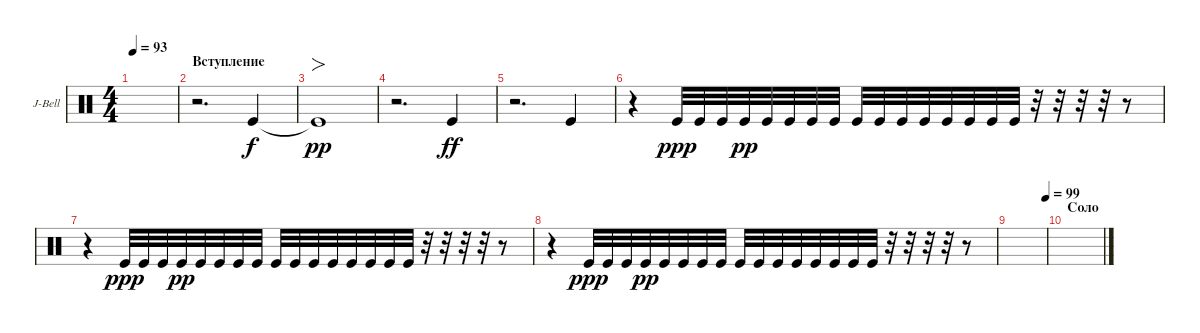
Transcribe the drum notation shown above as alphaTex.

\defaultSystemsLayout 4
\bracketExtendMode groupsimilarinstruments
\firstSystemTrackNameOrientation horizontal
\otherSystemsTrackNameOrientation horizontal
\track ("Е. Кулаков" "J-Bell") {instrument percussion}
\staff {score}
\articulation defaults
\ts (4 4)
\tempo 93
\clef neutral
\scale
0.474178
\ks c
|
\section ("" "Вступление")
\scale
0.262911 r.2{d} "Kick (hit)".4 |
\scale
0.262911 "Kick (hit)"{t}.1{fo dy pp} |
\scale
0.333333 r.2{d} "Kick (hit)".4{dy ff} |
\scale
0.333333 r.2{d} "Kick (hit)".4 |
\scale
0.333333 r.4 "Kick (hit)".32{dy ppp} "Kick (hit)".32 "Kick (hit)".32 "Kick (hit)".32{dy pp} "Kick (hit)".32 "Kick (hit)".32 "Kick (hit)".32 "Kick (hit)".32 "Kick (hit)".32 "Kick (hit)".32 "Kick (hit)".32 "Kick (hit)".32 "Kick (hit)".32 "Kick (hit)".32 "Kick (hit)".32 "Kick (hit)".32 r.32 r.32 r.32 r.32 r.8 |
\scale
0.333333 r.4 "Kick (hit)".32{dy ppp} "Kick (hit)".32 "Kick (hit)".32 "Kick (hit)".32{dy pp} "Kick (hit)".32 "Kick (hit)".32 "Kick (hit)".32 "Kick (hit)".32 "Kick (hit)".32 "Kick (hit)".32 "Kick (hit)".32 "Kick (hit)".32 "Kick (hit)".32 "Kick (hit)".32 "Kick (hit)".32 "Kick (hit)".32 r.32 r.32 r.32 r.32 r.8 |
\scale
0.333333 r.4 "Kick (hit)".32{dy ppp} "Kick (hit)".32 "Kick (hit)".32 "Kick (hit)".32{dy pp} "Kick (hit)".32 "Kick (hit)".32 "Kick (hit)".32 "Kick (hit)".32 "Kick (hit)".32 "Kick (hit)".32 "Kick (hit)".32 "Kick (hit)".32 "Kick (hit)".32 "Kick (hit)".32 "Kick (hit)".32 "Kick (hit)".32 r.32 r.32 r.32 r.32 r.8 |
\tempo (99 1)
\scale
0.333333 |
\section ("" "Соло")
\scale
0.333333 |
\scale
0.333333 |
|
|
\scale
0.333333 |
\scale
0.333333 |
\scale
0.333333
